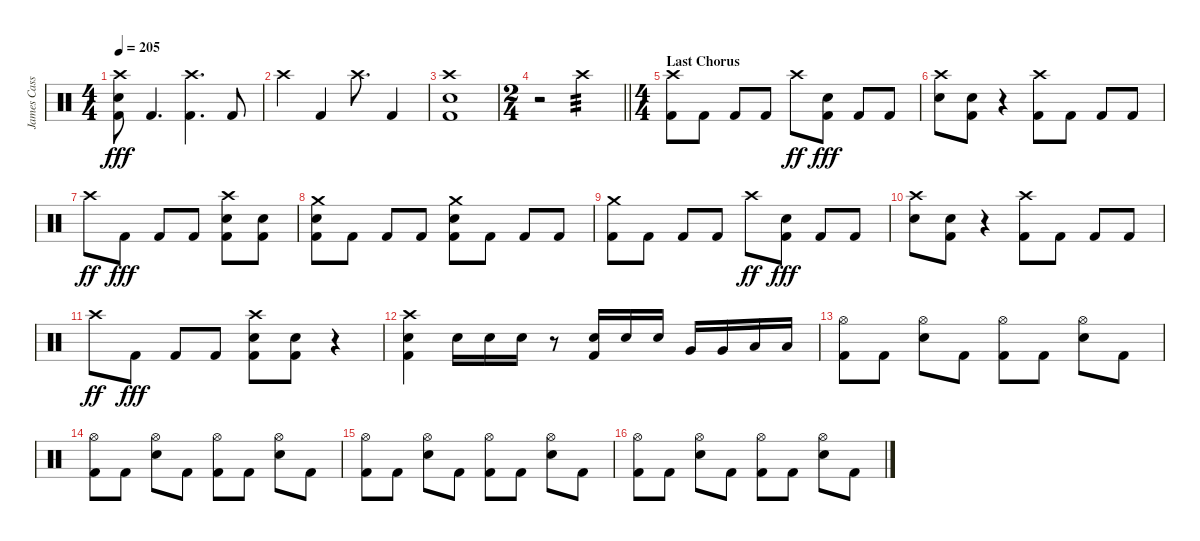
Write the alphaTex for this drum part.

\track ("James Cassels" "James Cass") {instrument percussion}
\staff {score}
\articulation defaults
\ts (4 4)
\tempo 205
\clef neutral
\ks c
("Crash high (hit)" "Electric Snare (hit)" "Kick (hit) 2").8{dy fff} "Kick (hit) 2".4{d} ("Crash high (hit)" "Kick (hit) 2").4{d} "Kick (hit) 2".8 |
"Crash high (hit)".4 "Kick (hit) 2".4 "Crash high (hit)".8{d} "Kick (hit) 2".4 |
("Crash high (hit)" "Electric Snare (hit)" "Kick (hit) 2").1 |
\ts (2 4)
\barLineRight lightlight
r.2 "Crash high (hit)".2{tp 3} |
\ts (4 4)
\section ("" "Last Chorus")
("Crash high (hit)" "Kick (hit) 2").8 "Kick (hit) 2".8 "Kick (hit) 2".8 "Kick (hit) 2".8 "Crash high (hit)".8{dy ff} ("Electric Snare (hit)" "Kick (hit) 2").8{dy fff} "Kick (hit) 2".8 "Kick (hit) 2".8 |
("Crash high (hit)" "Electric Snare (hit)").8 ("Electric Snare (hit)" "Kick (hit) 2").8 r.4 ("Crash high (hit)" "Kick (hit) 2").8 "Kick (hit) 2".8 "Kick (hit) 2".8 "Kick (hit) 2".8 |
"Crash high (hit)".8{dy ff} "Kick (hit) 2".8{dy fff} "Kick (hit) 2".8 "Kick (hit) 2".8 ("Crash high (hit)" "Electric Snare (hit)" "Kick (hit) 2").8 ("Electric Snare (hit)" "Kick (hit) 2").8 |
("Crash medium (hit)" "Electric Snare (hit)" "Kick (hit) 2").8 "Kick (hit) 2".8 "Kick (hit) 2".8 "Kick (hit) 2".8 ("Crash medium (hit)" "Electric Snare (hit)" "Kick (hit) 2").8 "Kick (hit) 2".8 "Kick (hit) 2".8 "Kick (hit) 2".8 |
("Crash medium (hit)" "Kick (hit) 2").8 "Kick (hit) 2".8 "Kick (hit) 2".8 "Kick (hit) 2".8 "Crash high (hit)".8{dy ff} ("Electric Snare (hit)" "Kick (hit) 2").8{dy fff} "Kick (hit) 2".8 "Kick (hit) 2".8 |
("Crash high (hit)" "Electric Snare (hit)").8 ("Electric Snare (hit)" "Kick (hit) 2").8 r.4 ("Crash high (hit)" "Kick (hit) 2").8 "Kick (hit) 2".8 "Kick (hit) 2".8 "Kick (hit) 2".8 |
"Crash high (hit)".8{dy ff} "Kick (hit) 2".8{dy fff} "Kick (hit) 2".8 "Kick (hit) 2".8 ("Crash high (hit)" "Electric Snare (hit)" "Kick (hit) 2").8 ("Electric Snare (hit)" "Kick (hit) 2").8 r.4 |
("Crash high (hit)" "Electric Snare (hit)" "Kick (hit) 2").4 "Electric Snare (hit)".16 "Electric Snare (hit)".16 "Electric Snare (hit)".16 r.8 ("Electric Snare (hit)" "Kick (hit) 2").16 "Electric Snare (hit)".16 "Electric Snare (hit)".16 "Very Low Tom (hit)".16 "Very Low Tom (hit)".16 "Low Floor Tom (hit)".16 "Low Floor Tom (hit)".16 |
("Hi-Hat (open)" "Kick (hit) 2").8 "Kick (hit) 2".8 ("Hi-Hat (open)" "Electric Snare (hit)").8 "Kick (hit) 2".8 ("Hi-Hat (open)" "Kick (hit) 2").8 "Kick (hit) 2".8 ("Hi-Hat (open)" "Electric Snare (hit)").8 "Kick (hit) 2".8 |
("Hi-Hat (open)" "Kick (hit) 2").8 "Kick (hit) 2".8 ("Hi-Hat (open)" "Electric Snare (hit)").8 "Kick (hit) 2".8 ("Hi-Hat (open)" "Kick (hit) 2").8 "Kick (hit) 2".8 ("Hi-Hat (open)" "Electric Snare (hit)").8 "Kick (hit) 2".8 |
("Hi-Hat (open)" "Kick (hit) 2").8 "Kick (hit) 2".8 ("Hi-Hat (open)" "Electric Snare (hit)").8 "Kick (hit) 2".8 ("Hi-Hat (open)" "Kick (hit) 2").8 "Kick (hit) 2".8 ("Hi-Hat (open)" "Electric Snare (hit)").8 "Kick (hit) 2".8 |
("Hi-Hat (open)" "Kick (hit) 2").8 "Kick (hit) 2".8 ("Hi-Hat (open)" "Electric Snare (hit)").8 "Kick (hit) 2".8 ("Hi-Hat (open)" "Kick (hit) 2").8 "Kick (hit) 2".8 ("Hi-Hat (open)" "Electric Snare (hit)").8 "Kick (hit) 2".8
